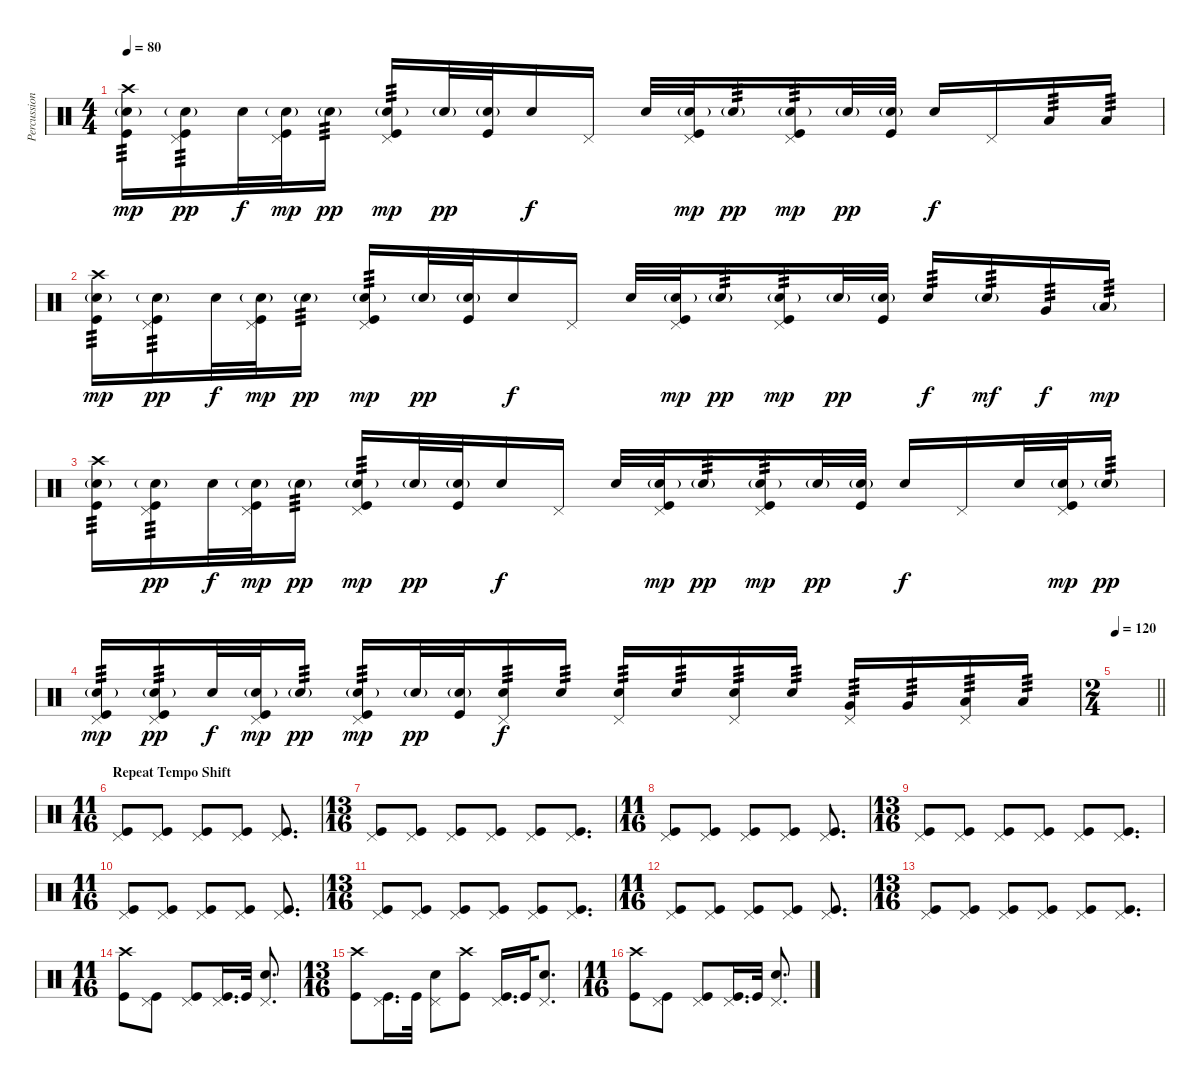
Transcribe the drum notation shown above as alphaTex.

\track ("Percussion" "Percussion") {instrument percussion}
\staff {score}
\articulation defaults
\ts (4 4)
\tempo 80
\clef neutral
\ks c
("Crash high (hit)" "Snare (hit) 2"{g} "Kick (hit)").16{tp 3 dy mp} ("Pedal Hi-Hat (hit)" "Snare (hit) 2"{g} "Kick (hit)").16{tp 3 dy pp} "Snare (hit) 2".32{dy f} ("Pedal Hi-Hat (hit)" "Snare (hit) 2"{g} "Kick (hit)").32{dy mp} "Snare (hit) 2"{g}.16{tp 3 dy pp} ("Pedal Hi-Hat (hit)" "Snare (hit) 2"{g} "Kick (hit)").16{tp 3 dy mp} "Snare (hit) 2"{g}.32{dy pp} ("Snare (hit) 2"{g} "Kick (hit)").32 "Snare (hit) 2".16{dy f} "Pedal Hi-Hat (hit)".16 "Snare (hit) 2".32 ("Pedal Hi-Hat (hit)" "Snare (hit) 2"{g} "Kick (hit)").32{dy mp} "Snare (hit) 2"{g}.16{tp 3 dy pp} ("Pedal Hi-Hat (hit)" "Snare (hit) 2"{g} "Kick (hit)").16{tp 3 dy mp} "Snare (hit) 2"{g}.32{dy pp} ("Snare (hit) 2"{g} "Kick (hit)").32 "Snare (hit) 2".16{dy f} "Pedal Hi-Hat (hit)".16 "Low Floor Tom (hit)".16{tp 3} "Low Floor Tom (hit)".16{tp 3} |
("Crash high (hit)" "Snare (hit) 2"{g} "Kick (hit)").16{tp 3 dy mp} ("Pedal Hi-Hat (hit)" "Snare (hit) 2"{g} "Kick (hit)").16{tp 3 dy pp} "Snare (hit) 2".32{dy f} ("Pedal Hi-Hat (hit)" "Snare (hit) 2"{g} "Kick (hit)").32{dy mp} "Snare (hit) 2"{g}.16{tp 3 dy pp} ("Pedal Hi-Hat (hit)" "Snare (hit) 2"{g} "Kick (hit)").16{tp 3 dy mp} "Snare (hit) 2"{g}.32{dy pp} ("Snare (hit) 2"{g} "Kick (hit)").32 "Snare (hit) 2".16{dy f} "Pedal Hi-Hat (hit)".16 "Snare (hit) 2".32 ("Pedal Hi-Hat (hit)" "Snare (hit) 2"{g} "Kick (hit)").32{dy mp} "Snare (hit) 2"{g}.16{tp 3 dy pp} ("Pedal Hi-Hat (hit)" "Snare (hit) 2"{g} "Kick (hit)").16{tp 3 dy mp} "Snare (hit) 2"{g}.32{dy pp} ("Snare (hit) 2"{g} "Kick (hit)").32 "Snare (hit) 2".16{tp 3 dy f} "Snare (hit) 2"{g}.16{tp 3 dy mf} "Very Low Tom (hit)".16{tp 3 dy f} "Low Floor Tom (hit)"{g}.16{tp 3 dy mp} |
("Crash high (hit)" "Snare (hit) 2"{g} "Kick (hit)").16{tp 3} ("Pedal Hi-Hat (hit)" "Snare (hit) 2"{g} "Kick (hit)").16{tp 3 dy pp} "Snare (hit) 2".32{dy f} ("Pedal Hi-Hat (hit)" "Snare (hit) 2"{g} "Kick (hit)").32{dy mp} "Snare (hit) 2"{g}.16{tp 3 dy pp} ("Pedal Hi-Hat (hit)" "Snare (hit) 2"{g} "Kick (hit)").16{tp 3 dy mp} "Snare (hit) 2"{g}.32{dy pp} ("Snare (hit) 2"{g} "Kick (hit)").32 "Snare (hit) 2".16{dy f} "Pedal Hi-Hat (hit)".16 "Snare (hit) 2".32 ("Pedal Hi-Hat (hit)" "Snare (hit) 2"{g} "Kick (hit)").32{dy mp} "Snare (hit) 2"{g}.16{tp 3 dy pp} ("Pedal Hi-Hat (hit)" "Snare (hit) 2"{g} "Kick (hit)").16{tp 3 dy mp} "Snare (hit) 2"{g}.32{dy pp} ("Snare (hit) 2"{g} "Kick (hit)").32 "Snare (hit) 2".16{dy f} "Pedal Hi-Hat (hit)".16 "Snare (hit) 2".32 ("Pedal Hi-Hat (hit)" "Snare (hit) 2"{g} "Kick (hit)").32{dy mp} "Snare (hit) 2"{g}.16{tp 3 dy pp} |
("Pedal Hi-Hat (hit)" "Snare (hit) 2"{g} "Kick (hit)").16{tp 3 dy mp} ("Pedal Hi-Hat (hit)" "Snare (hit) 2"{g} "Kick (hit)").16{tp 3 dy pp} "Snare (hit) 2".32{dy f} ("Pedal Hi-Hat (hit)" "Snare (hit) 2"{g} "Kick (hit)").32{dy mp} "Snare (hit) 2"{g}.16{tp 3 dy pp} ("Pedal Hi-Hat (hit)" "Snare (hit) 2"{g} "Kick (hit)").16{tp 3 dy mp} "Snare (hit) 2"{g}.32{dy pp} ("Snare (hit) 2"{g} "Kick (hit)").32 ("Pedal Hi-Hat (hit)" "Snare (hit) 2").16{tp 3 dy f} "Snare (hit) 2".16{tp 3} ("Pedal Hi-Hat (hit)" "Snare (hit) 2").16{tp 3} "Snare (hit) 2".16{tp 3} ("Pedal Hi-Hat (hit)" "Snare (hit) 2").16{tp 3} "Snare (hit) 2".16{tp 3} ("Pedal Hi-Hat (hit)" "Very Low Tom (hit)").16{tp 3} "Very Low Tom (hit)".16{tp 3} ("Pedal Hi-Hat (hit)" "Low Floor Tom (hit)").16{tp 3} "Low Floor Tom (hit)".16{tp 3} |
\ts (2 4)
\tempo 120
\barLineRight lightlight
|
\ts (11 16)
\section ("" "Repeat Tempo Shift")
("Pedal Hi-Hat (hit)" "Kick (hit)").8 ("Pedal Hi-Hat (hit)" "Kick (hit)").8 ("Pedal Hi-Hat (hit)" "Kick (hit)").8 ("Pedal Hi-Hat (hit)" "Kick (hit)").8 ("Pedal Hi-Hat (hit)" "Kick (hit)").8{d} |
\ts (13 16)
("Pedal Hi-Hat (hit)" "Kick (hit)").8 ("Pedal Hi-Hat (hit)" "Kick (hit)").8 ("Pedal Hi-Hat (hit)" "Kick (hit)").8 ("Pedal Hi-Hat (hit)" "Kick (hit)").8 ("Pedal Hi-Hat (hit)" "Kick (hit)").8 ("Pedal Hi-Hat (hit)" "Kick (hit)").8{d} |
\ts (11 16)
("Pedal Hi-Hat (hit)" "Kick (hit)").8 ("Pedal Hi-Hat (hit)" "Kick (hit)").8 ("Pedal Hi-Hat (hit)" "Kick (hit)").8 ("Pedal Hi-Hat (hit)" "Kick (hit)").8 ("Pedal Hi-Hat (hit)" "Kick (hit)").8{d} |
\ts (13 16)
("Pedal Hi-Hat (hit)" "Kick (hit)").8 ("Pedal Hi-Hat (hit)" "Kick (hit)").8 ("Pedal Hi-Hat (hit)" "Kick (hit)").8 ("Pedal Hi-Hat (hit)" "Kick (hit)").8 ("Pedal Hi-Hat (hit)" "Kick (hit)").8 ("Pedal Hi-Hat (hit)" "Kick (hit)").8{d} |
\ts (11 16)
("Pedal Hi-Hat (hit)" "Kick (hit)").8 ("Pedal Hi-Hat (hit)" "Kick (hit)").8 ("Pedal Hi-Hat (hit)" "Kick (hit)").8 ("Pedal Hi-Hat (hit)" "Kick (hit)").8 ("Pedal Hi-Hat (hit)" "Kick (hit)").8{d} |
\ts (13 16)
("Pedal Hi-Hat (hit)" "Kick (hit)").8 ("Pedal Hi-Hat (hit)" "Kick (hit)").8 ("Pedal Hi-Hat (hit)" "Kick (hit)").8 ("Pedal Hi-Hat (hit)" "Kick (hit)").8 ("Pedal Hi-Hat (hit)" "Kick (hit)").8 ("Pedal Hi-Hat (hit)" "Kick (hit)").8{d} |
\ts (11 16)
("Pedal Hi-Hat (hit)" "Kick (hit)").8 ("Pedal Hi-Hat (hit)" "Kick (hit)").8 ("Pedal Hi-Hat (hit)" "Kick (hit)").8 ("Pedal Hi-Hat (hit)" "Kick (hit)").8 ("Pedal Hi-Hat (hit)" "Kick (hit)").8{d} |
\ts (13 16)
("Pedal Hi-Hat (hit)" "Kick (hit)").8 ("Pedal Hi-Hat (hit)" "Kick (hit)").8 ("Pedal Hi-Hat (hit)" "Kick (hit)").8 ("Pedal Hi-Hat (hit)" "Kick (hit)").8 ("Pedal Hi-Hat (hit)" "Kick (hit)").8 ("Pedal Hi-Hat (hit)" "Kick (hit)").8{d} |
\ts (11 16)
("Crash high (hit)" "Kick (hit)").8 ("Pedal Hi-Hat (hit)" "Kick (hit)").8 ("Pedal Hi-Hat (hit)" "Kick (hit)").8 ("Pedal Hi-Hat (hit)" "Kick (hit)").16{d} "Kick (hit)".32 ("Pedal Hi-Hat (hit)" "Snare (hit) 2").8{d} |
\ts (13 16)
("Crash high (hit)" "Kick (hit)").8 ("Pedal Hi-Hat (hit)" "Kick (hit)").16{d} "Kick (hit)".32 ("Pedal Hi-Hat (hit)" "Snare (hit) 2").8 ("Crash high (hit)" "Kick (hit)").8 ("Pedal Hi-Hat (hit)" "Kick (hit)").16{d} "Kick (hit)".32 ("Pedal Hi-Hat (hit)" "Snare (hit) 2").8{d} |
\ts (11 16)
("Crash high (hit)" "Kick (hit)").8 ("Pedal Hi-Hat (hit)" "Kick (hit)").8 ("Pedal Hi-Hat (hit)" "Kick (hit)").8 ("Pedal Hi-Hat (hit)" "Kick (hit)").16{d} "Kick (hit)".32 ("Pedal Hi-Hat (hit)" "Snare (hit) 2").8{d}
